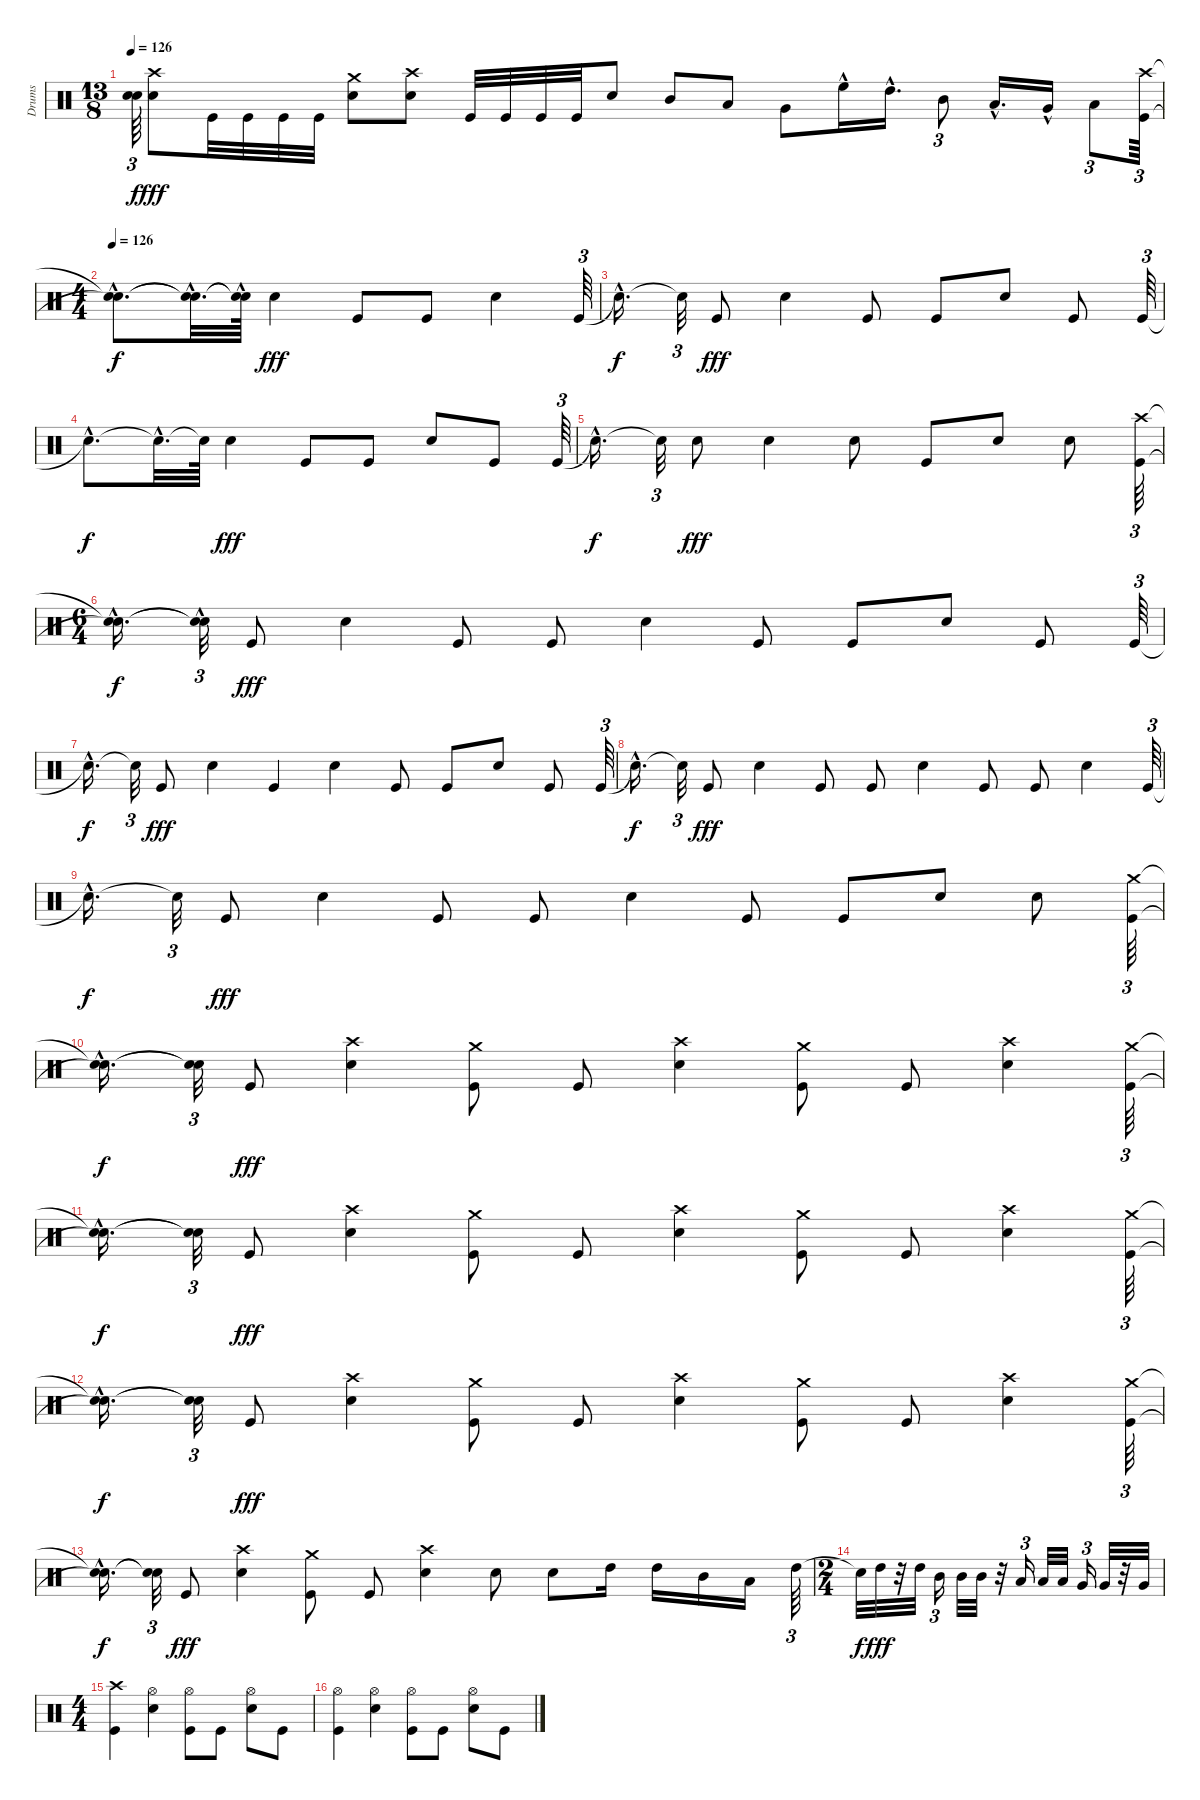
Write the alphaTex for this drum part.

\track ("Drums" "Drums") {instrument percussion}
\staff {score}
\articulation defaults
\ts (13 8)
\tempo 126
\clef neutral
\ks c
("Snare (hit)"{t} "Snare (hit)"{t}).64{tu (3 2) dy f} ("Snare (hit) 2" "Crash high (hit)").8{dy fff} "Kick (hit)".32 "Kick (hit)".32 "Kick (hit)".32 "Kick (hit)".32 ("Snare (hit) 2" "Crash medium (hit)").8 ("Snare (hit) 2" "Crash high (hit)").8 "Kick (hit)".32 "Kick (hit)".32 "Kick (hit)".32 "Kick (hit)".32 "Snare (hit) 2".8 "Mid Tom (hit)".8 "Low Tom (hit)".8 "Very Low Tom (hit)".8 "High Floor Tom (hit)"{hac}.16 "High Tom (hit)"{hac}.16{d} "Mid Tom (hit)".8{tu (3 2)} "Low Tom (hit)"{hac}.16{d} "Very Low Tom (hit)"{hac}.16 "Low Floor Tom (hit)".8{tu (3 2)} ("Kick (hit)" "Crash high (hit)").64{tu (3 2)} |
\ts (4 4)
\tempo 126
("Snare (hit)"{hac t} "Snare (hit)"{hac t}).8{d dy f} ("Snare (hit)"{hac t} "Snare (hit)"{hac t}).32{d} ("Snare (hit)"{t} "Snare (hit)"{hac t}).64 "Snare (hit) 2".4{dy fff} "Kick (hit)".8 "Kick (hit)".8 "Snare (hit) 2".4 "Kick (hit)".64{tu (3 2)} |
"Snare (hit)"{hac t}.16{d dy f} "Snare (hit)"{t}.32{tu (3 2)} "Kick (hit)".8{dy fff} "Snare (hit) 2".4 "Kick (hit)".8 "Kick (hit)".8 "Snare (hit) 2".8 "Kick (hit)".8 "Kick (hit)".64{tu (3 2)} |
"Snare (hit)"{hac t}.8{d dy f} "Snare (hit)"{hac t}.32{d} "Snare (hit)"{t}.64 "Snare (hit) 2".4{dy fff} "Kick (hit)".8 "Kick (hit)".8 "Snare (hit) 2".8 "Kick (hit)".8 "Kick (hit)".64{tu (3 2)} |
"Snare (hit)"{hac t}.16{d dy f} "Snare (hit)"{t}.32{tu (3 2)} "Snare (hit) 2".8{dy fff} "Snare (hit) 2".4 "Snare (hit) 2".8 "Kick (hit)".8 "Snare (hit) 2".8 "Snare (hit) 2".8 ("Kick (hit)" "Crash high (hit)").64{tu (3 2)} |
\ts (6 4)
("Snare (hit)"{hac t} "Snare (hit)"{hac t}).16{d dy f} ("Snare (hit)"{t} "Snare (hit)"{hac t}).32{tu (3 2)} "Kick (hit)".8{dy fff} "Snare (hit) 2".4 "Kick (hit)".8 "Kick (hit)".8 "Snare (hit) 2".4 "Kick (hit)".8 "Kick (hit)".8 "Snare (hit) 2".8 "Kick (hit)".8 "Kick (hit)".64{tu (3 2)} |
"Snare (hit)"{hac t}.16{d dy f} "Snare (hit)"{t}.32{tu (3 2)} "Kick (hit)".8{dy fff} "Snare (hit) 2".4 "Kick (hit)".4 "Snare (hit) 2".4 "Kick (hit)".8 "Kick (hit)".8 "Snare (hit) 2".8 "Kick (hit)".8 "Kick (hit)".64{tu (3 2)} |
"Snare (hit)"{hac t}.16{d dy f} "Snare (hit)"{t}.32{tu (3 2)} "Kick (hit)".8{dy fff} "Snare (hit) 2".4 "Kick (hit)".8 "Kick (hit)".8 "Snare (hit) 2".4 "Kick (hit)".8 "Kick (hit)".8 "Snare (hit) 2".4 "Kick (hit)".64{tu (3 2)} |
"Snare (hit)"{hac t}.16{d dy f} "Snare (hit)"{t}.32{tu (3 2)} "Kick (hit)".8{dy fff} "Snare (hit) 2".4 "Kick (hit)".8 "Kick (hit)".8 "Snare (hit) 2".4 "Kick (hit)".8 "Kick (hit)".8 "Snare (hit) 2".8 "Snare (hit) 2".8 ("Kick (hit)" "Crash medium (hit)").64{tu (3 2)} |
("Snare (hit)"{hac t} "Snare (hit)"{hac t}).16{d dy f} ("Snare (hit)"{t} "Snare (hit)"{t}).32{tu (3 2)} "Kick (hit)".8{dy fff} ("Snare (hit) 2" "Crash high (hit)").4 ("Kick (hit)" "Crash medium (hit)").8 "Kick (hit)".8 ("Snare (hit) 2" "Crash high (hit)").4 ("Kick (hit)" "Crash medium (hit)").8 "Kick (hit)".8 ("Snare (hit) 2" "Crash high (hit)").4 ("Kick (hit)" "Crash medium (hit)").64{tu (3 2)} |
("Snare (hit)"{hac t} "Snare (hit)"{hac t}).16{d dy f} ("Snare (hit)"{t} "Snare (hit)"{t}).32{tu (3 2)} "Kick (hit)".8{dy fff} ("Snare (hit) 2" "Crash high (hit)").4 ("Kick (hit)" "Crash medium (hit)").8 "Kick (hit)".8 ("Snare (hit) 2" "Crash high (hit)").4 ("Kick (hit)" "Crash medium (hit)").8 "Kick (hit)".8 ("Snare (hit) 2" "Crash high (hit)").4 ("Kick (hit)" "Crash medium (hit)").64{tu (3 2)} |
("Snare (hit)"{hac t} "Snare (hit)"{hac t}).16{d dy f} ("Snare (hit)"{t} "Snare (hit)"{t}).32{tu (3 2)} "Kick (hit)".8{dy fff} ("Snare (hit) 2" "Crash high (hit)").4 ("Kick (hit)" "Crash medium (hit)").8 "Kick (hit)".8 ("Snare (hit) 2" "Crash high (hit)").4 ("Kick (hit)" "Crash medium (hit)").8 "Kick (hit)".8 ("Snare (hit) 2" "Crash high (hit)").4 ("Kick (hit)" "Crash medium (hit)").64{tu (3 2)} |
("Snare (hit)"{hac t} "Snare (hit)"{hac t}).16{d dy f} ("Snare (hit)"{t} "Snare (hit)"{t}).32{tu (3 2)} "Kick (hit)".8{dy fff} ("Snare (hit) 2" "Crash high (hit)").4 ("Kick (hit)" "Crash medium (hit)").8 "Kick (hit)".8 ("Snare (hit) 2" "Crash high (hit)").4 "Snare (hit) 2".8 "Snare (hit) 2".8 "High Tom (hit)".16 "High Tom (hit)".16 "Mid Tom (hit)".16 "Low Tom (hit)".16 "High Tom (hit)".64{tu (3 2)} |
\ts (2 4)
"Snare (hit)"{t}.32{dy f} "High Tom (hit)".32{dy fff} r.32 "High Tom (hit)".32 "Mid Tom (hit)".16{tu (3 2)} "Mid Tom (hit)".32 "Mid Tom (hit)".32 r.32 "Low Tom (hit)".16{tu (3 2)} "Low Tom (hit)".32 "Low Tom (hit)".32 "Very Low Tom (hit)".16{tu (3 2)} "Very Low Tom (hit)".32 r.32 "Very Low Tom (hit)".32 |
\ts (4 4)
("Kick (hit)" "Crash high (hit)").4 ("Snare (hit) 2" "Hi-Hat (open)").4 ("Kick (hit)" "Hi-Hat (open)").8 "Kick (hit)".8 ("Snare (hit) 2" "Hi-Hat (open)").8 "Kick (hit)".8 |
("Kick (hit)" "Hi-Hat (open)").4 ("Snare (hit) 2" "Hi-Hat (open)").4 ("Kick (hit)" "Hi-Hat (open)").8 "Kick (hit)".8 ("Snare (hit) 2" "Hi-Hat (open)").8 "Kick (hit)".8
